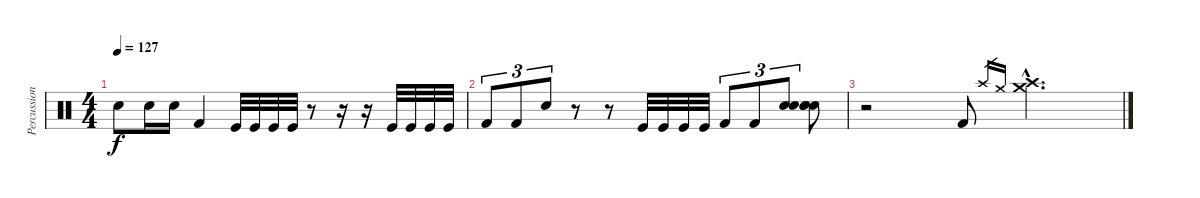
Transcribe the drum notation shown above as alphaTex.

\track ("Percussion" "Percussion") {instrument percussion}
\staff {score}
\articulation defaults
\ts (4 4)
\tempo 127
\clef neutral
\ks c "Snare (hit) 2".8{dy f} "Snare (hit) 2".16 "Snare (hit) 2".16 "Kick (hit) 2".4 "Kick (hit)".32 "Kick (hit)".32 "Kick (hit)".32 "Kick (hit)".32
r.8 r.16 r.16 "Kick (hit)".32 "Kick (hit)".32 "Kick (hit)".32 "Kick (hit)".32 |
"Kick (hit) 2".8{tu (3 2)} "Kick (hit) 2".8{tu (3 2)} "Electric Snare (hit)".8{tu (3 2)} r.8 r.8 "Kick (hit)".32 "Kick (hit)".32 "Kick (hit)".32 "Kick (hit)".32 "Kick (hit) 2".8{tu (3 2)} "Kick (hit) 2".8{tu (3 2)} ("Snare (hit) 2" "Snare (hit) 2").8{tu (3 2)} ("Electric Snare (hit)" "Electric Snare (hit)" "Snare (hit) 2").8 |
r.2 "Kick (hit) 2".8 "Crash high (hit)".16{gr} "Crash medium (hit)".16{gr} ("Crash medium (hit)"{hac} "Crash high (hit)"{hac}).4{d}
